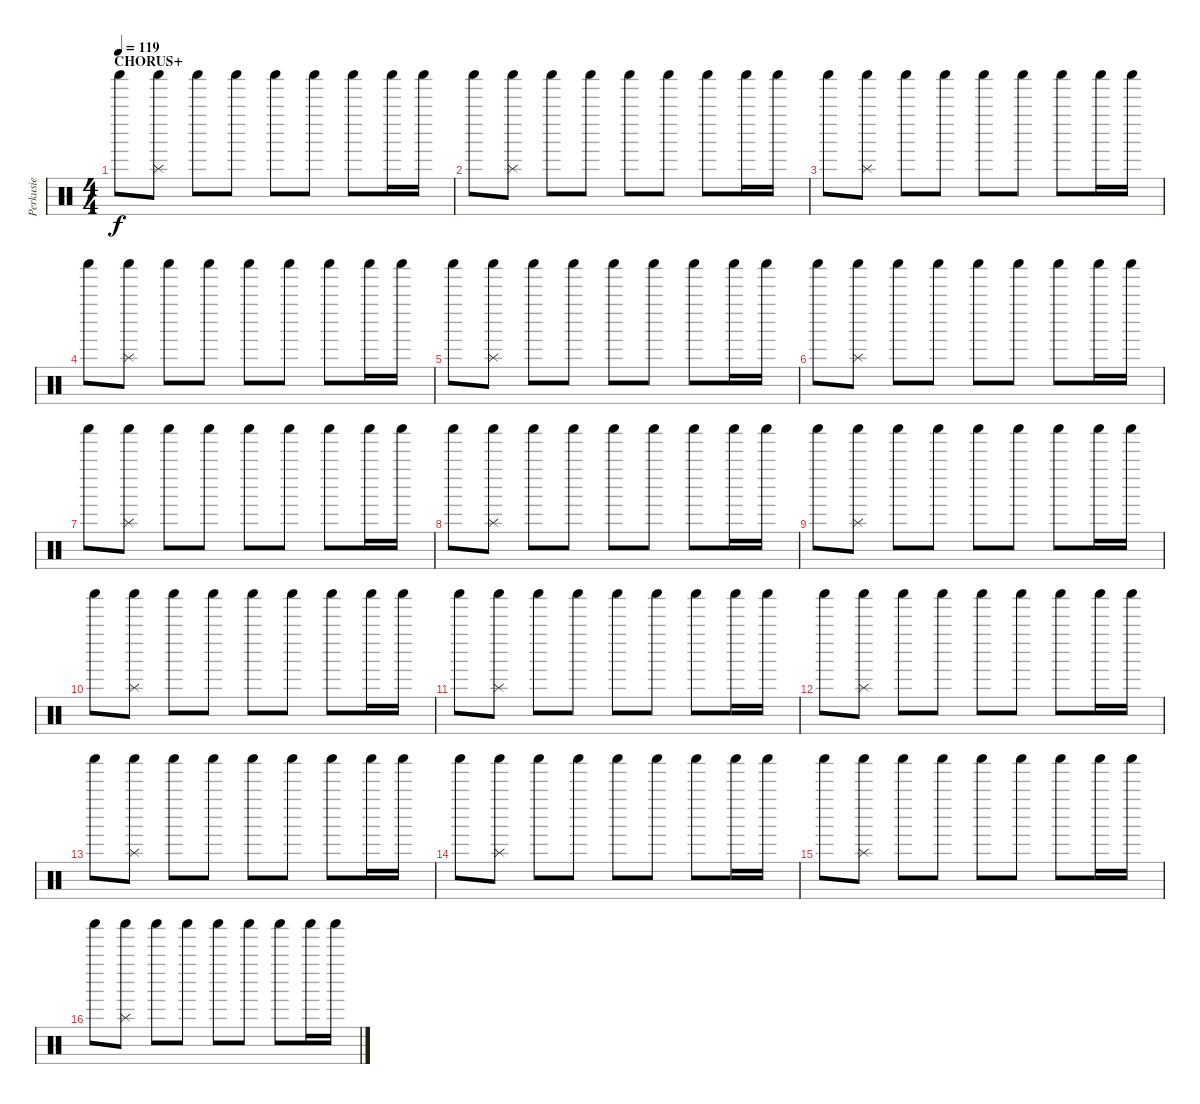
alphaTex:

\track ("Perkusie" "Perkusie") {instrument percussion}
\staff {score}
\articulation defaults
\ts (4 4)
\section ("" "CHORUS+")
\tempo 119
\clef neutral
\ks c "Shaker (hit)".8{dy f}
("Shaker (hit)" "Splash (hit)").8 "Shaker (hit)".8 "Shaker (hit)".8 "Shaker (hit)".8 "Shaker (hit)".8 "Shaker (hit)".8 "Shaker (hit)".16 "Shaker (hit)".16 |
"Shaker (hit)".8 ("Shaker (hit)" "Splash (hit)").8 "Shaker (hit)".8 "Shaker (hit)".8 "Shaker (hit)".8 "Shaker (hit)".8 "Shaker (hit)".8 "Shaker (hit)".16 "Shaker (hit)".16 |
"Shaker (hit)".8 ("Shaker (hit)" "Splash (hit)").8 "Shaker (hit)".8 "Shaker (hit)".8 "Shaker (hit)".8 "Shaker (hit)".8 "Shaker (hit)".8 "Shaker (hit)".16 "Shaker (hit)".16 |
"Shaker (hit)".8 ("Shaker (hit)" "Splash (hit)").8 "Shaker (hit)".8 "Shaker (hit)".8 "Shaker (hit)".8 "Shaker (hit)".8 "Shaker (hit)".8 "Shaker (hit)".16 "Shaker (hit)".16 |
"Shaker (hit)".8 ("Shaker (hit)" "Splash (hit)").8 "Shaker (hit)".8 "Shaker (hit)".8 "Shaker (hit)".8 "Shaker (hit)".8 "Shaker (hit)".8 "Shaker (hit)".16 "Shaker (hit)".16 |
"Shaker (hit)".8 ("Shaker (hit)" "Splash (hit)").8 "Shaker (hit)".8 "Shaker (hit)".8 "Shaker (hit)".8 "Shaker (hit)".8 "Shaker (hit)".8 "Shaker (hit)".16 "Shaker (hit)".16 |
"Shaker (hit)".8 ("Shaker (hit)" "Splash (hit)").8 "Shaker (hit)".8 "Shaker (hit)".8 "Shaker (hit)".8 "Shaker (hit)".8 "Shaker (hit)".8 "Shaker (hit)".16 "Shaker (hit)".16 |
"Shaker (hit)".8 ("Shaker (hit)" "Splash (hit)").8 "Shaker (hit)".8 "Shaker (hit)".8 "Shaker (hit)".8 "Shaker (hit)".8 "Shaker (hit)".8 "Shaker (hit)".16 "Shaker (hit)".16 |
"Shaker (hit)".8 ("Shaker (hit)" "Splash (hit)").8 "Shaker (hit)".8 "Shaker (hit)".8 "Shaker (hit)".8 "Shaker (hit)".8 "Shaker (hit)".8 "Shaker (hit)".16 "Shaker (hit)".16 |
"Shaker (hit)".8 ("Shaker (hit)" "Splash (hit)").8 "Shaker (hit)".8 "Shaker (hit)".8 "Shaker (hit)".8 "Shaker (hit)".8 "Shaker (hit)".8 "Shaker (hit)".16 "Shaker (hit)".16 |
"Shaker (hit)".8 ("Shaker (hit)" "Splash (hit)").8 "Shaker (hit)".8 "Shaker (hit)".8 "Shaker (hit)".8 "Shaker (hit)".8 "Shaker (hit)".8 "Shaker (hit)".16 "Shaker (hit)".16 |
"Shaker (hit)".8 ("Shaker (hit)" "Splash (hit)").8 "Shaker (hit)".8 "Shaker (hit)".8 "Shaker (hit)".8 "Shaker (hit)".8 "Shaker (hit)".8 "Shaker (hit)".16 "Shaker (hit)".16 |
"Shaker (hit)".8 ("Shaker (hit)" "Splash (hit)").8 "Shaker (hit)".8 "Shaker (hit)".8 "Shaker (hit)".8 "Shaker (hit)".8 "Shaker (hit)".8 "Shaker (hit)".16 "Shaker (hit)".16 |
"Shaker (hit)".8 ("Shaker (hit)" "Splash (hit)").8 "Shaker (hit)".8 "Shaker (hit)".8 "Shaker (hit)".8 "Shaker (hit)".8 "Shaker (hit)".8 "Shaker (hit)".16 "Shaker (hit)".16 |
"Shaker (hit)".8 ("Shaker (hit)" "Splash (hit)").8 "Shaker (hit)".8 "Shaker (hit)".8 "Shaker (hit)".8 "Shaker (hit)".8 "Shaker (hit)".8 "Shaker (hit)".16 "Shaker (hit)".16 |
"Shaker (hit)".8 ("Shaker (hit)" "Splash (hit)").8 "Shaker (hit)".8 "Shaker (hit)".8 "Shaker (hit)".8 "Shaker (hit)".8 "Shaker (hit)".8 "Shaker (hit)".16 "Shaker (hit)".16
